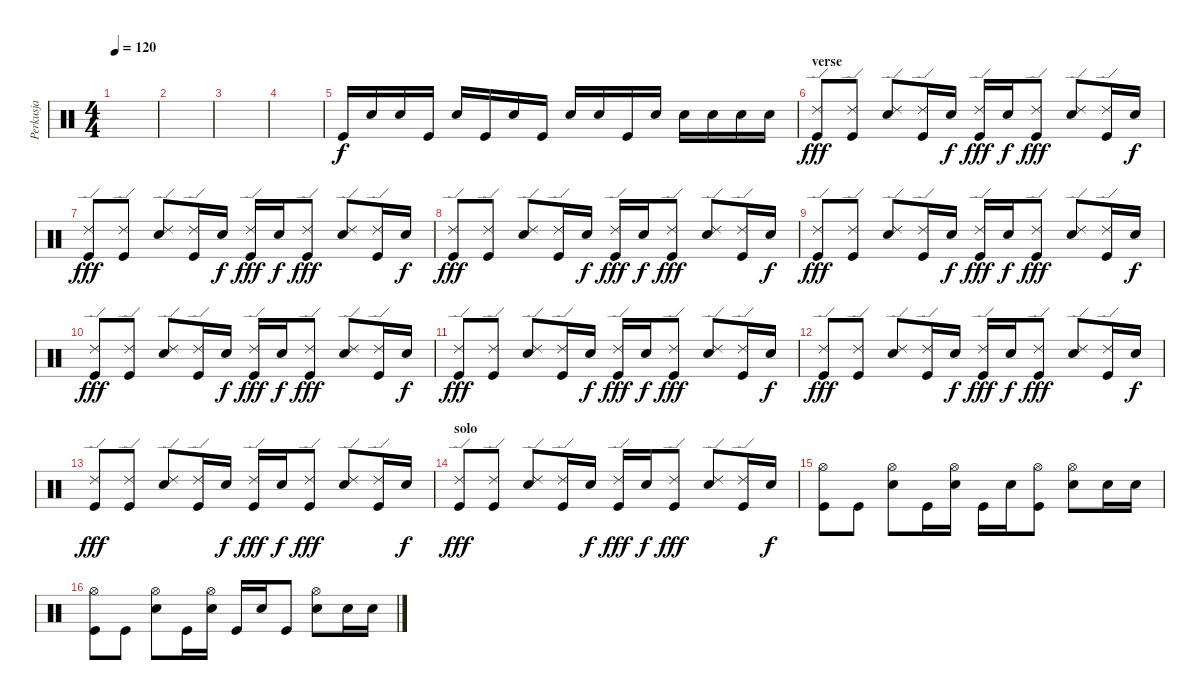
\track ("Perkusja" "Perkusja") {instrument percussion}
\staff {score}
\articulation defaults
\ts (4 4)
\tempo 120
\clef neutral
\ks c
|
|
|
|
"Kick (hit)".16 "Electric Snare (hit)".16 "Electric Snare (hit)".16 "Kick (hit)".16 "Electric Snare (hit)".16 "Kick (hit)".16 "Electric Snare (hit)".16 "Kick (hit)".16 "Electric Snare (hit)".16 "Electric Snare (hit)".16 "Kick (hit)".16 "Electric Snare (hit)".16 "Electric Snare (hit)".16 "Electric Snare (hit)".16 "Electric Snare (hit)".16 "Electric Snare (hit)".16 |
\section ("" "verse")
("Ride (edge) 2" "Kick (hit)").8{dy fff} ("Ride (edge) 2" "Kick (hit)").8 ("Ride (edge) 2" "Electric Snare (hit)").8 ("Ride (edge) 2" "Kick (hit)").16 "Electric Snare (hit)".16{dy f} ("Ride (edge) 2" "Kick (hit)").16{dy fff} "Electric Snare (hit)".16{dy f} ("Ride (edge) 2" "Kick (hit)").8{dy fff} ("Ride (edge) 2" "Electric Snare (hit)").8 ("Ride (edge) 2" "Kick (hit)").16 "Electric Snare (hit)".16{dy f} |
("Ride (edge) 2" "Kick (hit)").8{dy fff} ("Ride (edge) 2" "Kick (hit)").8 ("Ride (edge) 2" "Electric Snare (hit)").8 ("Ride (edge) 2" "Kick (hit)").16 "Electric Snare (hit)".16{dy f} ("Ride (edge) 2" "Kick (hit)").16{dy fff} "Electric Snare (hit)".16{dy f} ("Ride (edge) 2" "Kick (hit)").8{dy fff} ("Ride (edge) 2" "Electric Snare (hit)").8 ("Ride (edge) 2" "Kick (hit)").16 "Electric Snare (hit)".16{dy f} |
("Ride (edge) 2" "Kick (hit)").8{dy fff} ("Ride (edge) 2" "Kick (hit)").8 ("Ride (edge) 2" "Electric Snare (hit)").8 ("Ride (edge) 2" "Kick (hit)").16 "Electric Snare (hit)".16{dy f} ("Ride (edge) 2" "Kick (hit)").16{dy fff} "Electric Snare (hit)".16{dy f} ("Ride (edge) 2" "Kick (hit)").8{dy fff} ("Ride (edge) 2" "Electric Snare (hit)").8 ("Ride (edge) 2" "Kick (hit)").16 "Electric Snare (hit)".16{dy f} |
("Ride (edge) 2" "Kick (hit)").8{dy fff} ("Ride (edge) 2" "Kick (hit)").8 ("Ride (edge) 2" "Electric Snare (hit)").8 ("Ride (edge) 2" "Kick (hit)").16 "Electric Snare (hit)".16{dy f} ("Ride (edge) 2" "Kick (hit)").16{dy fff} "Electric Snare (hit)".16{dy f} ("Ride (edge) 2" "Kick (hit)").8{dy fff} ("Ride (edge) 2" "Electric Snare (hit)").8 ("Ride (edge) 2" "Kick (hit)").16 "Electric Snare (hit)".16{dy f} |
("Ride (edge) 2" "Kick (hit)").8{dy fff} ("Ride (edge) 2" "Kick (hit)").8 ("Ride (edge) 2" "Electric Snare (hit)").8 ("Ride (edge) 2" "Kick (hit)").16 "Electric Snare (hit)".16{dy f} ("Ride (edge) 2" "Kick (hit)").16{dy fff} "Electric Snare (hit)".16{dy f} ("Ride (edge) 2" "Kick (hit)").8{dy fff} ("Ride (edge) 2" "Electric Snare (hit)").8 ("Ride (edge) 2" "Kick (hit)").16 "Electric Snare (hit)".16{dy f} |
("Ride (edge) 2" "Kick (hit)").8{dy fff} ("Ride (edge) 2" "Kick (hit)").8 ("Ride (edge) 2" "Electric Snare (hit)").8 ("Ride (edge) 2" "Kick (hit)").16 "Electric Snare (hit)".16{dy f} ("Ride (edge) 2" "Kick (hit)").16{dy fff} "Electric Snare (hit)".16{dy f} ("Ride (edge) 2" "Kick (hit)").8{dy fff} ("Ride (edge) 2" "Electric Snare (hit)").8 ("Ride (edge) 2" "Kick (hit)").16 "Electric Snare (hit)".16{dy f} |
("Ride (edge) 2" "Kick (hit)").8{dy fff} ("Ride (edge) 2" "Kick (hit)").8 ("Ride (edge) 2" "Electric Snare (hit)").8 ("Ride (edge) 2" "Kick (hit)").16 "Electric Snare (hit)".16{dy f} ("Ride (edge) 2" "Kick (hit)").16{dy fff} "Electric Snare (hit)".16{dy f} ("Ride (edge) 2" "Kick (hit)").8{dy fff} ("Ride (edge) 2" "Electric Snare (hit)").8 ("Ride (edge) 2" "Kick (hit)").16 "Electric Snare (hit)".16{dy f} |
("Ride (edge) 2" "Kick (hit)").8{dy fff} ("Ride (edge) 2" "Kick (hit)").8 ("Ride (edge) 2" "Electric Snare (hit)").8 ("Ride (edge) 2" "Kick (hit)").16 "Electric Snare (hit)".16{dy f} ("Ride (edge) 2" "Kick (hit)").16{dy fff} "Electric Snare (hit)".16{dy f} ("Ride (edge) 2" "Kick (hit)").8{dy fff} ("Ride (edge) 2" "Electric Snare (hit)").8 ("Ride (edge) 2" "Kick (hit)").16 "Electric Snare (hit)".16{dy f} |
\section ("" "solo")
("Ride (edge) 2" "Kick (hit)").8{dy fff} ("Ride (edge) 2" "Kick (hit)").8 ("Ride (edge) 2" "Electric Snare (hit)").8 ("Ride (edge) 2" "Kick (hit)").16 "Electric Snare (hit)".16{dy f} ("Ride (edge) 2" "Kick (hit)").16{dy fff} "Electric Snare (hit)".16{dy f} ("Ride (edge) 2" "Kick (hit)").8{dy fff} ("Ride (edge) 2" "Electric Snare (hit)").8 ("Ride (edge) 2" "Kick (hit)").16 "Electric Snare (hit)".16{dy f} |
("Hi-Hat (open)" "Kick (hit)").8 "Kick (hit)".8 ("Hi-Hat (open)" "Electric Snare (hit)").8 "Kick (hit)".16 ("Hi-Hat (open)" "Electric Snare (hit)").16 "Kick (hit)".16 "Electric Snare (hit)".16 ("Hi-Hat (open)" "Kick (hit)").8 ("Hi-Hat (open)" "Electric Snare (hit)").8 "Electric Snare (hit)".16 "Electric Snare (hit)".16 |
("Hi-Hat (open)" "Kick (hit)").8 "Kick (hit)".8 ("Hi-Hat (open)" "Electric Snare (hit)").8 "Kick (hit)".16 ("Hi-Hat (open)" "Electric Snare (hit)").16 "Kick (hit)".16 "Electric Snare (hit)".16 "Kick (hit)".8 ("Hi-Hat (open)" "Electric Snare (hit)").8 "Electric Snare (hit)".16 "Electric Snare (hit)".16
